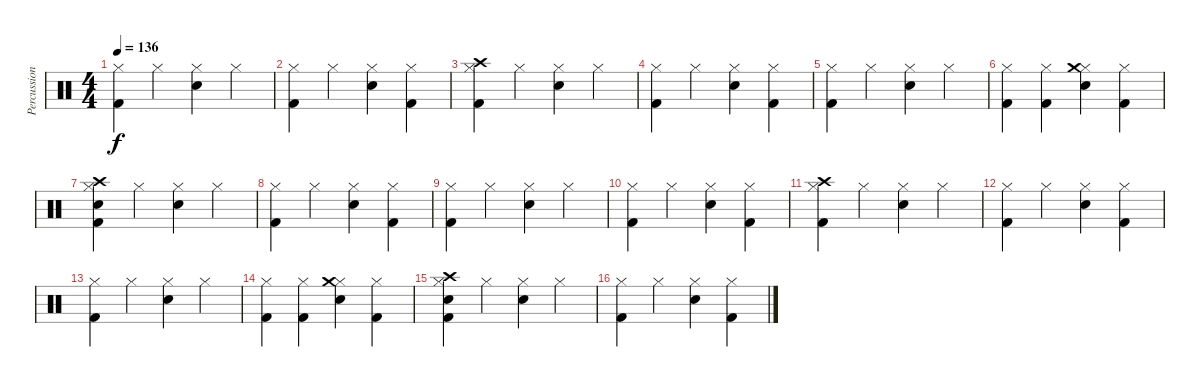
\track ("Percussion" "Percussion") {instrument percussion}
\staff {score}
\articulation defaults
\ts (4 4)
\tempo 136
\clef neutral
\ks c
("Hi-Hat (closed)" "Kick (hit) 2").4{dy f} "Hi-Hat (closed)".4 ("Hi-Hat (closed)" "Electric Snare (hit)").4 "Hi-Hat (closed)".4 |
("Hi-Hat (closed)" "Kick (hit) 2").4 "Hi-Hat (closed)".4 ("Hi-Hat (closed)" "Electric Snare (hit)").4 ("Hi-Hat (closed)" "Kick (hit) 2").4 |
("Hi-Hat (closed)" "Crash high (hit)" "Kick (hit) 2").4 "Hi-Hat (closed)".4 ("Hi-Hat (closed)" "Electric Snare (hit)").4 "Hi-Hat (closed)".4 |
("Hi-Hat (closed)" "Kick (hit) 2").4 "Hi-Hat (closed)".4 ("Hi-Hat (closed)" "Electric Snare (hit)").4 ("Hi-Hat (closed)" "Kick (hit) 2").4 |
("Hi-Hat (closed)" "Kick (hit) 2").4 "Hi-Hat (closed)".4 ("Hi-Hat (closed)" "Electric Snare (hit)").4 "Hi-Hat (closed)".4 |
("Hi-Hat (closed)" "Kick (hit) 2").4 ("Hi-Hat (closed)" "Kick (hit) 2").4 ("Hi-Hat (closed)" "Crash medium (hit)" "Electric Snare (hit)").4 ("Hi-Hat (closed)" "Kick (hit) 2").4 |
("Hi-Hat (closed)" "Crash high (hit)" "Electric Snare (hit)" "Kick (hit) 2").4 "Hi-Hat (closed)".4 ("Hi-Hat (closed)" "Electric Snare (hit)").4 "Hi-Hat (closed)".4 |
("Hi-Hat (closed)" "Kick (hit) 2").4 "Hi-Hat (closed)".4 ("Hi-Hat (closed)" "Electric Snare (hit)").4 ("Hi-Hat (closed)" "Kick (hit) 2").4 |
("Hi-Hat (closed)" "Kick (hit) 2").4 "Hi-Hat (closed)".4 ("Hi-Hat (closed)" "Electric Snare (hit)").4 "Hi-Hat (closed)".4 |
("Hi-Hat (closed)" "Kick (hit) 2").4 "Hi-Hat (closed)".4 ("Hi-Hat (closed)" "Electric Snare (hit)").4 ("Hi-Hat (closed)" "Kick (hit) 2").4 |
("Hi-Hat (closed)" "Crash high (hit)" "Kick (hit) 2").4 "Hi-Hat (closed)".4 ("Hi-Hat (closed)" "Electric Snare (hit)").4 "Hi-Hat (closed)".4 |
("Hi-Hat (closed)" "Kick (hit) 2").4 "Hi-Hat (closed)".4 ("Hi-Hat (closed)" "Electric Snare (hit)").4 ("Hi-Hat (closed)" "Kick (hit) 2").4 |
("Hi-Hat (closed)" "Kick (hit) 2").4 "Hi-Hat (closed)".4 ("Hi-Hat (closed)" "Electric Snare (hit)").4 "Hi-Hat (closed)".4 |
("Hi-Hat (closed)" "Kick (hit) 2").4 ("Hi-Hat (closed)" "Kick (hit) 2").4 ("Hi-Hat (closed)" "Crash medium (hit)" "Electric Snare (hit)").4 ("Hi-Hat (closed)" "Kick (hit) 2").4 |
("Hi-Hat (closed)" "Crash high (hit)" "Electric Snare (hit)" "Kick (hit) 2").4 "Hi-Hat (closed)".4 ("Hi-Hat (closed)" "Electric Snare (hit)").4 "Hi-Hat (closed)".4 |
("Hi-Hat (closed)" "Kick (hit) 2").4 "Hi-Hat (closed)".4 ("Hi-Hat (closed)" "Electric Snare (hit)").4 ("Hi-Hat (closed)" "Kick (hit) 2").4
